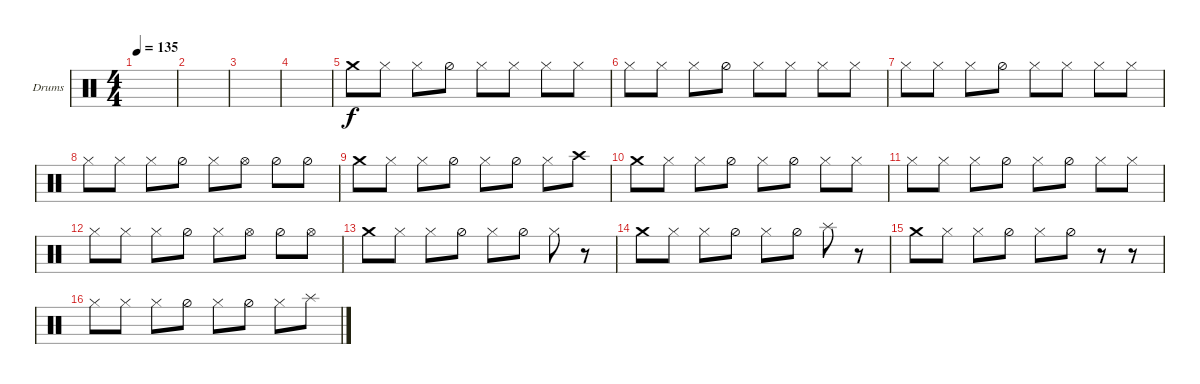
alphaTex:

\defaultSystemsLayout 4
\bracketExtendMode groupsimilarinstruments
\firstSystemTrackNameOrientation horizontal
\otherSystemsTrackNameOrientation horizontal
\track ("Helders" "Drums") {instrument percussion}
\staff {score}
\articulation defaults
\ts (4 4)
\tempo 135
\clef neutral
\ks c
|
|
|
|
"Crash medium (hit)".8 "Hi-Hat (closed)".8 "Hi-Hat (closed)".8 "Hi-Hat (half)".8 "Hi-Hat (closed)".8 "Hi-Hat (closed)".8 "Hi-Hat (closed)".8 "Hi-Hat (closed)".8 |
"Hi-Hat (closed)".8 "Hi-Hat (closed)".8 "Hi-Hat (closed)".8 "Hi-Hat (half)".8 "Hi-Hat (closed)".8 "Hi-Hat (closed)".8 "Hi-Hat (closed)".8 "Hi-Hat (closed)".8 |
"Hi-Hat (closed)".8 "Hi-Hat (closed)".8 "Hi-Hat (closed)".8 "Hi-Hat (half)".8 "Hi-Hat (closed)".8 "Hi-Hat (closed)".8 "Hi-Hat (closed)".8 "Hi-Hat (closed)".8 |
"Hi-Hat (closed)".8 "Hi-Hat (closed)".8 "Hi-Hat (closed)".8 "Hi-Hat (half)".8 "Hi-Hat (closed)".8 "Hi-Hat (open)".8 "Hi-Hat (half)".8 "Hi-Hat (half)".8 |
"Crash medium (hit)".8 "Hi-Hat (closed)".8 "Hi-Hat (closed)".8 "Hi-Hat (half)".8 "Hi-Hat (closed)".8 "Hi-Hat (half)".8 "Hi-Hat (closed)".8 "Crash high (hit)".8 |
"Crash medium (hit)".8 "Hi-Hat (closed)".8 "Hi-Hat (closed)".8 "Hi-Hat (half)".8 "Hi-Hat (closed)".8 "Hi-Hat (half)".8 "Hi-Hat (closed)".8 "Hi-Hat (closed)".8 |
"Hi-Hat (closed)".8 "Hi-Hat (closed)".8 "Hi-Hat (closed)".8 "Hi-Hat (half)".8 "Hi-Hat (closed)".8 "Hi-Hat (half)".8 "Hi-Hat (closed)".8 "Hi-Hat (closed)".8 |
"Hi-Hat (closed)".8 "Hi-Hat (closed)".8 "Hi-Hat (closed)".8 "Hi-Hat (half)".8 "Hi-Hat (closed)".8 "Hi-Hat (open)".8 "Hi-Hat (half)".8 "Hi-Hat (open)".8 |
"Crash medium (hit)".8 "Hi-Hat (closed)".8 "Hi-Hat (closed)".8 "Hi-Hat (half)".8 "Hi-Hat (closed)".8 "Hi-Hat (half)".8 "Hi-Hat (closed)".8 r.8 |
"Crash medium (hit)".8 "Hi-Hat (closed)".8 "Hi-Hat (closed)".8 "Hi-Hat (half)".8 "Hi-Hat (closed)".8 "Hi-Hat (half)".8 "Splash (hit)".8 r.8 |
"Crash medium (hit)".8 "Hi-Hat (closed)".8 "Hi-Hat (closed)".8 "Hi-Hat (half)".8 "Hi-Hat (closed)".8 "Hi-Hat (half)".8 r.8 r.8 |
"Hi-Hat (closed)".8 "Hi-Hat (closed)".8 "Hi-Hat (closed)".8 "Hi-Hat (half)".8 "Hi-Hat (closed)".8 "Hi-Hat (half)".8 "Hi-Hat (closed)".8 "Splash (hit)".8
